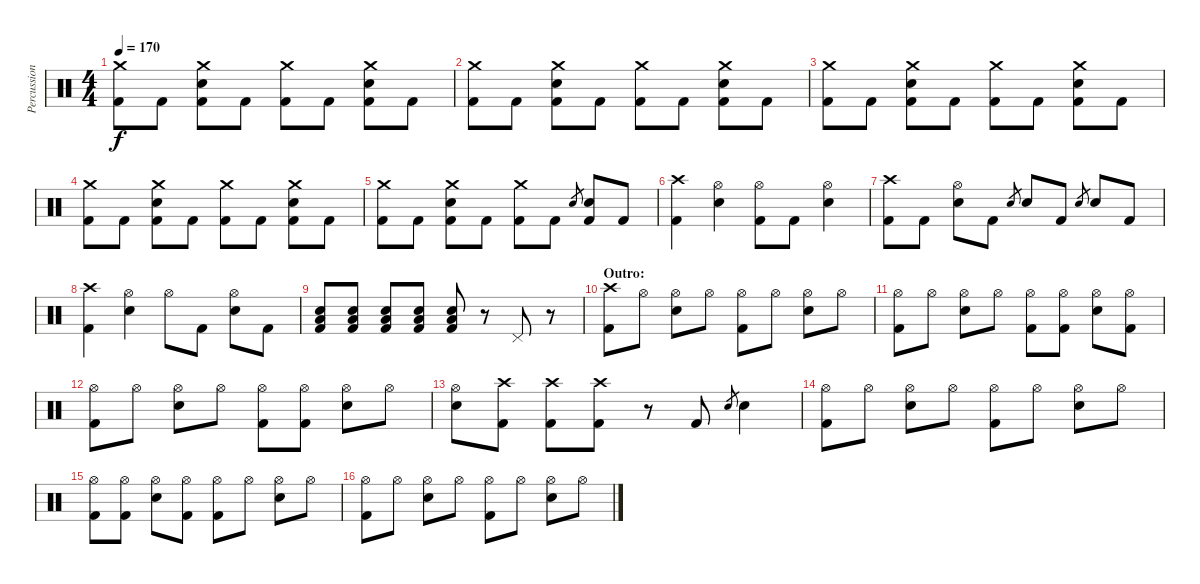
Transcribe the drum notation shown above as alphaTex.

\track ("Percussion" "Percussion") {instrument percussion}
\staff {score}
\articulation defaults
\ts (4 4)
\tempo 170
\clef neutral
\ks c
("Crash medium (hit)" "Kick (hit) 2").8{dy f} "Kick (hit) 2".8 ("Crash medium (hit)" "Snare (hit) 2" "Kick (hit) 2").8 "Kick (hit) 2".8 ("Crash medium (hit)" "Kick (hit) 2").8 "Kick (hit) 2".8 ("Crash medium (hit)" "Snare (hit) 2" "Kick (hit) 2").8 "Kick (hit) 2".8 |
("Crash medium (hit)" "Kick (hit) 2").8 "Kick (hit) 2".8 ("Crash medium (hit)" "Snare (hit) 2" "Kick (hit) 2").8 "Kick (hit) 2".8 ("Crash medium (hit)" "Kick (hit) 2").8 "Kick (hit) 2".8 ("Crash medium (hit)" "Snare (hit) 2" "Kick (hit) 2").8 "Kick (hit) 2".8 |
("Crash medium (hit)" "Kick (hit) 2").8 "Kick (hit) 2".8 ("Crash medium (hit)" "Snare (hit) 2" "Kick (hit) 2").8 "Kick (hit) 2".8 ("Crash medium (hit)" "Kick (hit) 2").8 "Kick (hit) 2".8 ("Crash medium (hit)" "Snare (hit) 2" "Kick (hit) 2").8 "Kick (hit) 2".8 |
("Crash medium (hit)" "Kick (hit) 2").8 "Kick (hit) 2".8 ("Crash medium (hit)" "Snare (hit) 2" "Kick (hit) 2").8 "Kick (hit) 2".8 ("Crash medium (hit)" "Kick (hit) 2").8 "Kick (hit) 2".8 ("Crash medium (hit)" "Snare (hit) 2" "Kick (hit) 2").8 "Kick (hit) 2".8 |
("Crash medium (hit)" "Kick (hit) 2").8 "Kick (hit) 2".8 ("Crash medium (hit)" "Snare (hit) 2" "Kick (hit) 2").8 "Kick (hit) 2".8 ("Crash medium (hit)" "Kick (hit) 2").8 "Kick (hit) 2".8 "Snare (hit) 2".8{gr} ("Snare (hit) 2" "Kick (hit) 2").8 "Kick (hit) 2".8 |
("Crash high (hit)" "Kick (hit) 2").4 ("Hi-Hat (open)" "Snare (hit) 2").4 ("Hi-Hat (open)" "Kick (hit) 2").8 "Kick (hit) 2".8 ("Hi-Hat (open)" "Snare (hit) 2").4 |
("Crash high (hit)" "Kick (hit) 2").8 "Kick (hit) 2".8 ("Hi-Hat (open)" "Snare (hit) 2").8 "Kick (hit) 2".8 "Snare (hit) 2".8{gr} "Snare (hit) 2".8 "Kick (hit) 2".8 "Snare (hit) 2".8{gr} "Snare (hit) 2".8 "Kick (hit) 2".8 |
("Crash high (hit)" "Kick (hit) 2").4 ("Hi-Hat (open)" "Snare (hit) 2").4 "Hi-Hat (open)".8 "Kick (hit) 2".8 ("Hi-Hat (open)" "Snare (hit) 2").8 "Kick (hit) 2".8 |
("Low Tom (hit)" "Snare (hit) 2" "Kick (hit) 2").8 ("Low Tom (hit)" "Snare (hit) 2" "Kick (hit) 2").8 ("Low Tom (hit)" "Snare (hit) 2" "Kick (hit) 2").8 ("Low Tom (hit)" "Snare (hit) 2" "Kick (hit) 2").8 ("Low Tom (hit)" "Snare (hit) 2" "Kick (hit) 2").8 r.8 "Pedal Hi-Hat (hit)".8 r.8 |
\section ("" "Outro:")
("Crash high (hit)" "Kick (hit) 2").8 "Hi-Hat (open)".8 ("Hi-Hat (open)" "Snare (hit) 2").8 "Hi-Hat (open)".8 ("Hi-Hat (open)" "Kick (hit) 2").8 "Hi-Hat (open)".8 ("Hi-Hat (open)" "Snare (hit) 2").8 "Hi-Hat (open)".8 |
("Hi-Hat (open)" "Kick (hit) 2").8 "Hi-Hat (open)".8 ("Hi-Hat (open)" "Snare (hit) 2").8 "Hi-Hat (open)".8 ("Hi-Hat (open)" "Kick (hit) 2").8 ("Hi-Hat (open)" "Kick (hit) 2").8 ("Hi-Hat (open)" "Snare (hit) 2").8 ("Hi-Hat (open)" "Kick (hit) 2").8 |
("Hi-Hat (open)" "Kick (hit) 2").8 "Hi-Hat (open)".8 ("Hi-Hat (open)" "Snare (hit) 2").8 "Hi-Hat (open)".8 ("Hi-Hat (open)" "Kick (hit) 2").8 ("Hi-Hat (open)" "Kick (hit) 2").8 ("Hi-Hat (open)" "Snare (hit) 2").8 "Hi-Hat (open)".8 |
("Hi-Hat (open)" "Snare (hit) 2").8 ("Crash high (hit)" "Kick (hit) 2").8 ("Crash high (hit)" "Kick (hit) 2").8 ("Crash high (hit)" "Kick (hit) 2").8 r.8 "Kick (hit) 2".8 "Snare (hit) 2".8{gr} "Snare (hit) 2".4 |
("Hi-Hat (open)" "Kick (hit) 2").8 "Hi-Hat (open)".8 ("Hi-Hat (open)" "Snare (hit) 2").8 "Hi-Hat (open)".8 ("Hi-Hat (open)" "Kick (hit) 2").8 "Hi-Hat (open)".8 ("Hi-Hat (open)" "Snare (hit) 2").8 "Hi-Hat (open)".8 |
("Hi-Hat (open)" "Kick (hit) 2").8 ("Hi-Hat (open)" "Kick (hit) 2").8 ("Hi-Hat (open)" "Snare (hit) 2").8 ("Hi-Hat (open)" "Kick (hit) 2").8 ("Hi-Hat (open)" "Kick (hit) 2").8 "Hi-Hat (open)".8 ("Hi-Hat (open)" "Snare (hit) 2").8 "Hi-Hat (open)".8 |
("Hi-Hat (open)" "Kick (hit) 2").8 "Hi-Hat (open)".8 ("Hi-Hat (open)" "Snare (hit) 2").8 "Hi-Hat (open)".8 ("Hi-Hat (open)" "Kick (hit) 2").8 "Hi-Hat (open)".8 ("Hi-Hat (open)" "Snare (hit) 2").8 "Hi-Hat (open)".8
